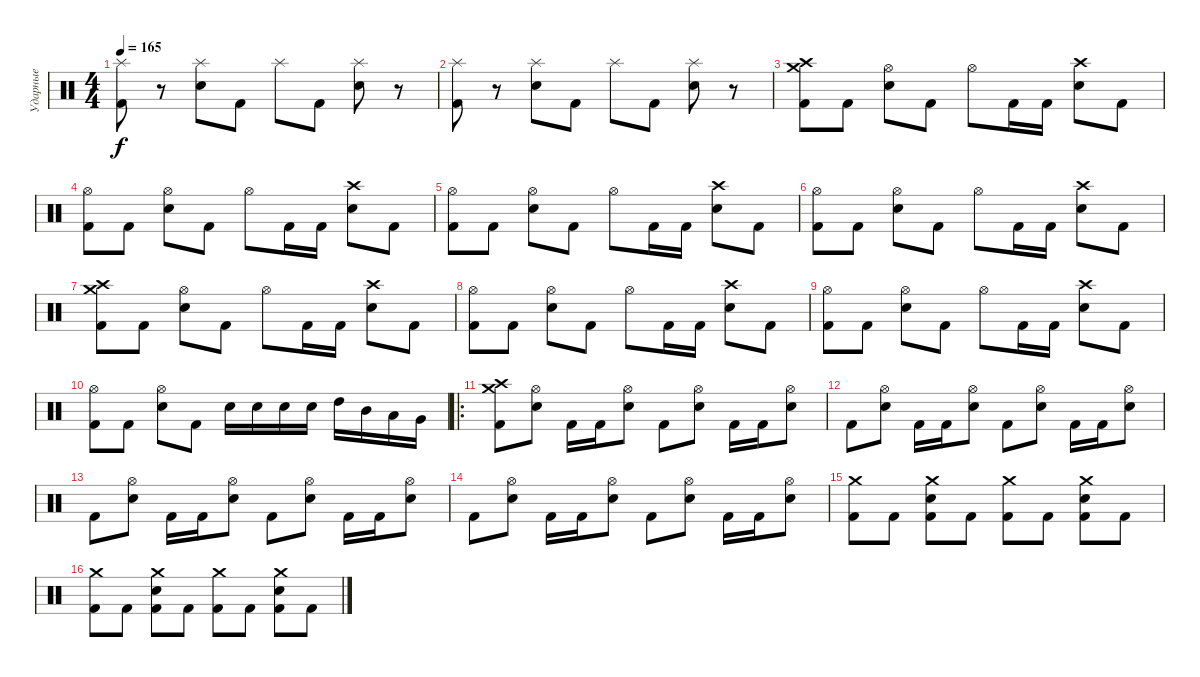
\track ("Ударные" "Ударные") {instrument percussion}
\staff {score}
\articulation defaults
\ts (4 4)
\tempo 165
\clef neutral
\ks c
("Splash (hit)" "Kick (hit) 2").8{dy f} r.8 ("Splash (hit)" "Electric Snare (hit)").8 "Kick (hit) 2".8 "Splash (hit)".8 "Kick (hit) 2".8 ("Splash (hit)" "Electric Snare (hit)").8 r.8 |
("Splash (hit)" "Kick (hit) 2").8 r.8 ("Splash (hit)" "Electric Snare (hit)").8 "Kick (hit) 2".8 "Splash (hit)".8 "Kick (hit) 2".8 ("Splash (hit)" "Electric Snare (hit)").8 r.8 |
("Crash medium (hit)" "Crash high (hit)" "Kick (hit) 2").8 "Kick (hit) 2".8 ("Hi-Hat (open)" "Electric Snare (hit)").8 "Kick (hit) 2".8 "Hi-Hat (open)".8 "Kick (hit) 2".16 "Kick (hit) 2".16 ("Crash high (hit)" "Electric Snare (hit)").8 "Kick (hit) 2".8 |
("Hi-Hat (open)" "Kick (hit) 2").8 "Kick (hit) 2".8 ("Hi-Hat (open)" "Electric Snare (hit)").8 "Kick (hit) 2".8 "Hi-Hat (open)".8 "Kick (hit) 2".16 "Kick (hit) 2".16 ("Crash high (hit)" "Electric Snare (hit)").8 "Kick (hit) 2".8 |
("Hi-Hat (open)" "Kick (hit) 2").8 "Kick (hit) 2".8 ("Hi-Hat (open)" "Electric Snare (hit)").8 "Kick (hit) 2".8 "Hi-Hat (open)".8 "Kick (hit) 2".16 "Kick (hit) 2".16 ("Crash high (hit)" "Electric Snare (hit)").8 "Kick (hit) 2".8 |
("Hi-Hat (open)" "Kick (hit) 2").8 "Kick (hit) 2".8 ("Hi-Hat (open)" "Electric Snare (hit)").8 "Kick (hit) 2".8 "Hi-Hat (open)".8 "Kick (hit) 2".16 "Kick (hit) 2".16 ("Crash high (hit)" "Electric Snare (hit)").8 "Kick (hit) 2".8 |
("Crash medium (hit)" "Crash high (hit)" "Kick (hit) 2").8 "Kick (hit) 2".8 ("Hi-Hat (open)" "Electric Snare (hit)").8 "Kick (hit) 2".8 "Hi-Hat (open)".8 "Kick (hit) 2".16 "Kick (hit) 2".16 ("Crash high (hit)" "Electric Snare (hit)").8 "Kick (hit) 2".8 |
("Hi-Hat (open)" "Kick (hit) 2").8 "Kick (hit) 2".8 ("Hi-Hat (open)" "Electric Snare (hit)").8 "Kick (hit) 2".8 "Hi-Hat (open)".8 "Kick (hit) 2".16 "Kick (hit) 2".16 ("Crash high (hit)" "Electric Snare (hit)").8 "Kick (hit) 2".8 |
("Hi-Hat (open)" "Kick (hit) 2").8 "Kick (hit) 2".8 ("Hi-Hat (open)" "Electric Snare (hit)").8 "Kick (hit) 2".8 "Hi-Hat (open)".8 "Kick (hit) 2".16 "Kick (hit) 2".16 ("Crash high (hit)" "Electric Snare (hit)").8 "Kick (hit) 2".8 |
("Hi-Hat (open)" "Kick (hit) 2").8 "Kick (hit) 2".8 ("Hi-Hat (open)" "Electric Snare (hit)").8 "Kick (hit) 2".8 "Electric Snare (hit)".16 "Electric Snare (hit)".16 "Electric Snare (hit)".16 "Electric Snare (hit)".16 "High Tom (hit)".16 "Mid Tom (hit)".16 "Low Tom (hit)".16 "Very Low Tom (hit)".16 |
\ro
("Crash high (hit)" "Crash medium (hit)" "Kick (hit) 2").8 ("Hi-Hat (open)" "Electric Snare (hit)").8 "Kick (hit) 2".16 "Kick (hit) 2".16 ("Hi-Hat (open)" "Electric Snare (hit)").8 "Kick (hit) 2".8 ("Hi-Hat (open)" "Electric Snare (hit)").8 "Kick (hit) 2".16 "Kick (hit) 2".16 ("Hi-Hat (open)" "Electric Snare (hit)").8 |
"Kick (hit) 2".8 ("Hi-Hat (open)" "Electric Snare (hit)").8 "Kick (hit) 2".16 "Kick (hit) 2".16 ("Hi-Hat (open)" "Electric Snare (hit)").8 "Kick (hit) 2".8 ("Hi-Hat (open)" "Electric Snare (hit)").8 "Kick (hit) 2".16 "Kick (hit) 2".16 ("Hi-Hat (open)" "Electric Snare (hit)").8 |
"Kick (hit) 2".8 ("Hi-Hat (open)" "Electric Snare (hit)").8 "Kick (hit) 2".16 "Kick (hit) 2".16 ("Hi-Hat (open)" "Electric Snare (hit)").8 "Kick (hit) 2".8 ("Hi-Hat (open)" "Electric Snare (hit)").8 "Kick (hit) 2".16 "Kick (hit) 2".16 ("Hi-Hat (open)" "Electric Snare (hit)").8 |
"Kick (hit) 2".8 ("Hi-Hat (open)" "Electric Snare (hit)").8 "Kick (hit) 2".16 "Kick (hit) 2".16 ("Hi-Hat (open)" "Electric Snare (hit)").8 "Kick (hit) 2".8 ("Hi-Hat (open)" "Electric Snare (hit)").8 "Kick (hit) 2".16 "Kick (hit) 2".16 ("Hi-Hat (open)" "Electric Snare (hit)").8 |
("Crash medium (hit)" "Kick (hit) 2").8 "Kick (hit) 2".8 ("Crash medium (hit)" "Electric Snare (hit)" "Kick (hit) 2").8 "Kick (hit) 2".8 ("Crash medium (hit)" "Kick (hit) 2").8 "Kick (hit) 2".8 ("Crash medium (hit)" "Electric Snare (hit)" "Kick (hit) 2").8 "Kick (hit) 2".8 |
("Crash medium (hit)" "Kick (hit) 2").8 "Kick (hit) 2".8 ("Crash medium (hit)" "Electric Snare (hit)" "Kick (hit) 2").8 "Kick (hit) 2".8 ("Crash medium (hit)" "Kick (hit) 2").8 "Kick (hit) 2".8 ("Crash medium (hit)" "Electric Snare (hit)" "Kick (hit) 2").8 "Kick (hit) 2".8
